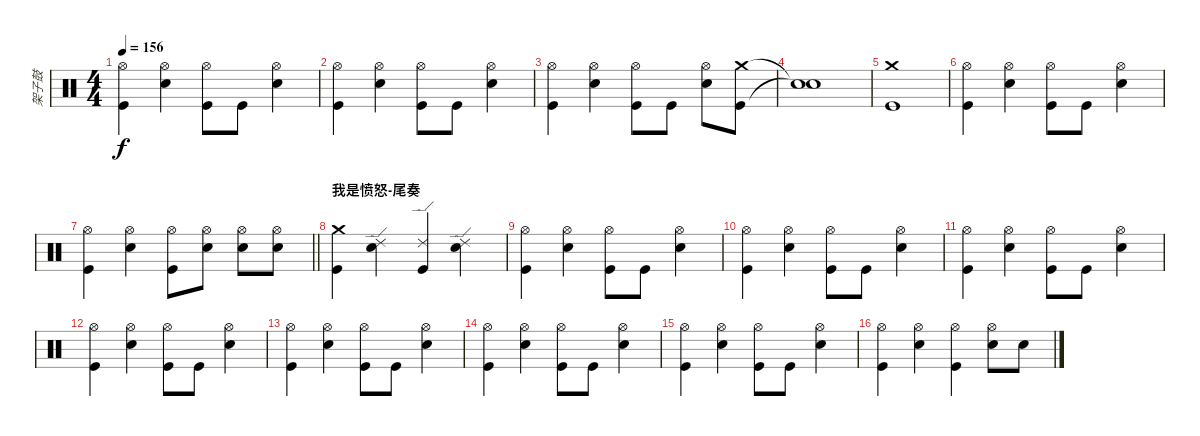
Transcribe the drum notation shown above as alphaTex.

\track ("架子鼓" "架子鼓") {instrument percussion}
\staff {score}
\articulation defaults
\ts (4 4)
\tempo 156
\clef neutral
\ks c
("Hi-Hat (open)" "Kick (hit)").4{dy f} ("Hi-Hat (open)" "Electric Snare (hit)").4 ("Hi-Hat (open)" "Kick (hit)").8 "Kick (hit)".8 ("Hi-Hat (open)" "Electric Snare (hit)").4 |
("Hi-Hat (open)" "Kick (hit)").4 ("Hi-Hat (open)" "Electric Snare (hit)").4 ("Hi-Hat (open)" "Kick (hit)").8 "Kick (hit)".8 ("Hi-Hat (open)" "Electric Snare (hit)").4 |
("Hi-Hat (open)" "Kick (hit)").4 ("Hi-Hat (open)" "Electric Snare (hit)").4 ("Hi-Hat (open)" "Kick (hit)").8 "Kick (hit)".8 ("Hi-Hat (open)" "Electric Snare (hit)").8 ("Crash medium (hit)" "Kick (hit)").8 |
("Snare (hit)"{t} "Snare (hit)"{t}).1 |
("Crash medium (hit)" "Kick (hit)").1 |
("Hi-Hat (open)" "Kick (hit)").4 ("Hi-Hat (open)" "Electric Snare (hit)").4 ("Hi-Hat (open)" "Kick (hit)").8 "Kick (hit)".8 ("Hi-Hat (open)" "Electric Snare (hit)").4 |
\barLineRight lightlight
("Hi-Hat (open)" "Kick (hit)").4 ("Hi-Hat (open)" "Electric Snare (hit)").4 ("Hi-Hat (open)" "Kick (hit)").8 ("Hi-Hat (open)" "Electric Snare (hit)").8 ("Hi-Hat (open)" "Electric Snare (hit)").8 ("Hi-Hat (open)" "Electric Snare (hit)").8 |
\section ("" "我是愤怒-尾奏")
("Crash medium (hit)" "Kick (hit)").4 ("Ride (edge) 2" "Electric Snare (hit)").4 ("Ride (edge) 2" "Kick (hit)").4 ("Ride (edge) 2" "Electric Snare (hit)").4 |
("Hi-Hat (open)" "Kick (hit)").4 ("Hi-Hat (open)" "Electric Snare (hit)").4 ("Hi-Hat (open)" "Kick (hit)").8 "Kick (hit)".8 ("Hi-Hat (open)" "Electric Snare (hit)").4 |
("Hi-Hat (open)" "Kick (hit)").4 ("Hi-Hat (open)" "Electric Snare (hit)").4 ("Hi-Hat (open)" "Kick (hit)").8 "Kick (hit)".8 ("Hi-Hat (open)" "Electric Snare (hit)").4 |
("Hi-Hat (open)" "Kick (hit)").4 ("Hi-Hat (open)" "Electric Snare (hit)").4 ("Hi-Hat (open)" "Kick (hit)").8 "Kick (hit)".8 ("Hi-Hat (open)" "Electric Snare (hit)").4 |
("Hi-Hat (open)" "Kick (hit)").4 ("Hi-Hat (open)" "Electric Snare (hit)").4 ("Hi-Hat (open)" "Kick (hit)").8 "Kick (hit)".8 ("Hi-Hat (open)" "Electric Snare (hit)").4 |
("Hi-Hat (open)" "Kick (hit)").4 ("Hi-Hat (open)" "Electric Snare (hit)").4 ("Hi-Hat (open)" "Kick (hit)").8 "Kick (hit)".8 ("Hi-Hat (open)" "Electric Snare (hit)").4 |
("Hi-Hat (open)" "Kick (hit)").4 ("Hi-Hat (open)" "Electric Snare (hit)").4 ("Hi-Hat (open)" "Kick (hit)").8 "Kick (hit)".8 ("Hi-Hat (open)" "Electric Snare (hit)").4 |
("Hi-Hat (open)" "Kick (hit)").4 ("Hi-Hat (open)" "Electric Snare (hit)").4 ("Hi-Hat (open)" "Kick (hit)").8 "Kick (hit)".8 ("Hi-Hat (open)" "Electric Snare (hit)").4 |
("Hi-Hat (open)" "Kick (hit)").4 ("Hi-Hat (open)" "Electric Snare (hit)").4 ("Hi-Hat (open)" "Kick (hit)").4 ("Hi-Hat (open)" "Electric Snare (hit)").8 "Electric Snare (hit)".8
